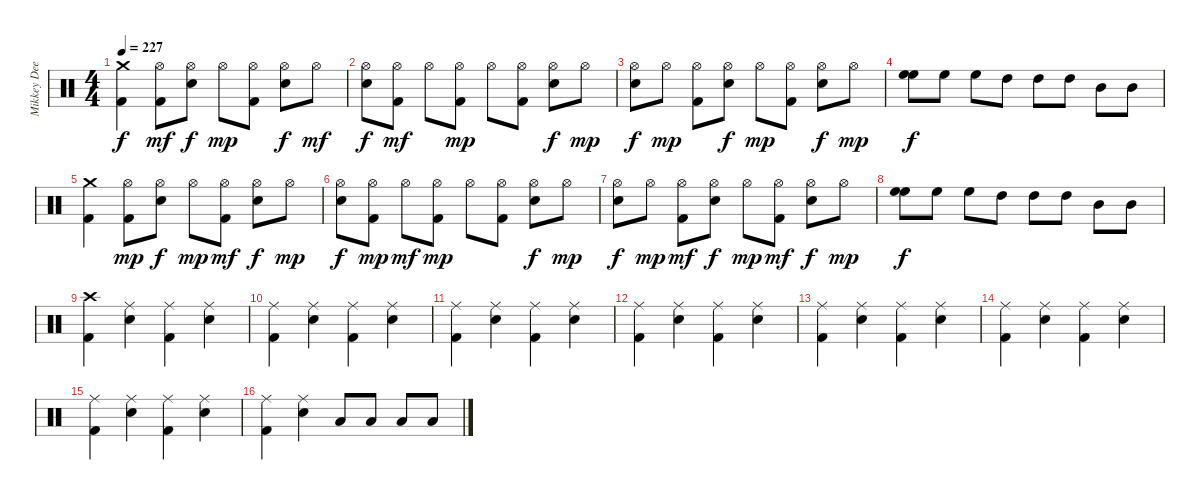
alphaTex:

\track ("Mikkey Dee" "Mikkey Dee") {instrument percussion}
\staff {score}
\articulation defaults
\ts (4 4)
\tempo 227
\clef neutral
\ks c
("Kick (hit) 2" "Crash medium (hit)").4{dy f} ("Hi-Hat (open)" "Kick (hit) 2").8{dy mf} ("Electric Snare (hit)" "Hi-Hat (open)").8{dy f} "Hi-Hat (open)".8{dy mp} ("Hi-Hat (open)" "Kick (hit) 2").8 ("Hi-Hat (open)" "Electric Snare (hit)").8{dy f} "Hi-Hat (open)".8{dy mf} |
("Electric Snare (hit)" "Hi-Hat (open)").8{dy f} ("Hi-Hat (open)" "Kick (hit) 2").8{dy mf} "Hi-Hat (open)".8 ("Kick (hit) 2" "Hi-Hat (open)").8{dy mp} "Hi-Hat (open)".8 ("Kick (hit) 2" "Hi-Hat (open)").8 ("Hi-Hat (open)" "Electric Snare (hit)").8{dy f} "Hi-Hat (open)".8{dy mp} |
("Electric Snare (hit)" "Hi-Hat (open)").8{dy f} "Hi-Hat (open)".8{dy mp} ("Kick (hit) 2" "Hi-Hat (open)").8 ("Hi-Hat (open)" "Electric Snare (hit)").8{dy f} "Hi-Hat (open)".8{dy mp} ("Kick (hit) 2" "Hi-Hat (open)").8 ("Hi-Hat (open)" "Electric Snare (hit)").8{dy f} "Hi-Hat (open)".8{dy mp} |
("High Floor Tom (hit)" "High Floor Tom (hit)").8{dy f} "High Floor Tom (hit)".8 "High Floor Tom (hit)".8 "High Tom (hit)".8 "High Tom (hit)".8 "High Tom (hit)".8 "Mid Tom (hit)".8 "Mid Tom (hit)".8 |
("Crash medium (hit)" "Kick (hit) 2").4 ("Hi-Hat (open)" "Kick (hit) 2").8{dy mp} ("Electric Snare (hit)" "Hi-Hat (open)").8{dy f} "Hi-Hat (open)".8{dy mp} ("Kick (hit) 2" "Hi-Hat (open)").8{dy mf} ("Hi-Hat (open)" "Electric Snare (hit)").8{dy f} "Hi-Hat (open)".8{dy mp} |
("Hi-Hat (open)" "Electric Snare (hit)").8{dy f} ("Kick (hit) 2" "Hi-Hat (open)").8{dy mp} "Hi-Hat (open)".8{dy mf} ("Hi-Hat (open)" "Kick (hit) 2").8{dy mp} "Hi-Hat (open)".8 ("Kick (hit) 2" "Hi-Hat (open)").8 ("Electric Snare (hit)" "Hi-Hat (open)").8{dy f} "Hi-Hat (open)".8{dy mp} |
("Electric Snare (hit)" "Hi-Hat (open)").8{dy f} "Hi-Hat (open)".8{dy mp} ("Hi-Hat (open)" "Kick (hit) 2").8{dy mf} ("Electric Snare (hit)" "Hi-Hat (open)").8{dy f} "Hi-Hat (open)".8{dy mp} ("Hi-Hat (open)" "Kick (hit) 2").8{dy mf} ("Electric Snare (hit)" "Hi-Hat (open)").8{dy f} "Hi-Hat (open)".8{dy mp} |
("High Floor Tom (hit)" "High Floor Tom (hit)").8{dy f} "High Floor Tom (hit)".8 "High Floor Tom (hit)".8 "High Tom (hit)".8 "High Tom (hit)".8 "High Tom (hit)".8 "Mid Tom (hit)".8 "Mid Tom (hit)".8 |
("Kick (hit) 2" "Crash high (hit)").4 ("Ride (middle)" "Electric Snare (hit)").4 ("Kick (hit) 2" "Ride (middle)").4 ("Ride (middle)" "Electric Snare (hit)").4 |
("Kick (hit) 2" "Ride (middle)").4 ("Electric Snare (hit)" "Ride (middle)").4 ("Ride (middle)" "Kick (hit) 2").4 ("Ride (middle)" "Electric Snare (hit)").4 |
("Ride (middle)" "Kick (hit) 2").4 ("Ride (middle)" "Electric Snare (hit)").4 ("Ride (middle)" "Kick (hit) 2").4 ("Ride (middle)" "Electric Snare (hit)").4 |
("Kick (hit) 2" "Ride (middle)").4 ("Ride (middle)" "Electric Snare (hit)").4 ("Ride (middle)" "Kick (hit) 2").4 ("Ride (middle)" "Electric Snare (hit)").4 |
("Ride (middle)" "Kick (hit) 2").4 ("Ride (middle)" "Electric Snare (hit)").4 ("Kick (hit) 2" "Ride (middle)").4 ("Electric Snare (hit)" "Ride (middle)").4 |
("Ride (middle)" "Kick (hit) 2").4 ("Ride (middle)" "Electric Snare (hit)").4 ("Ride (middle)" "Kick (hit) 2").4 ("Ride (middle)" "Electric Snare (hit)").4 |
("Kick (hit) 2" "Ride (middle)").4 ("Electric Snare (hit)" "Ride (middle)").4 ("Ride (middle)" "Kick (hit) 2").4 ("Ride (middle)" "Electric Snare (hit)").4 |
("Ride (middle)" "Kick (hit) 2").4 ("Electric Snare (hit)" "Ride (middle)").4 "Low Tom (hit)".8 "Low Tom (hit)".8 "Low Tom (hit)".8 "Low Tom (hit)".8
